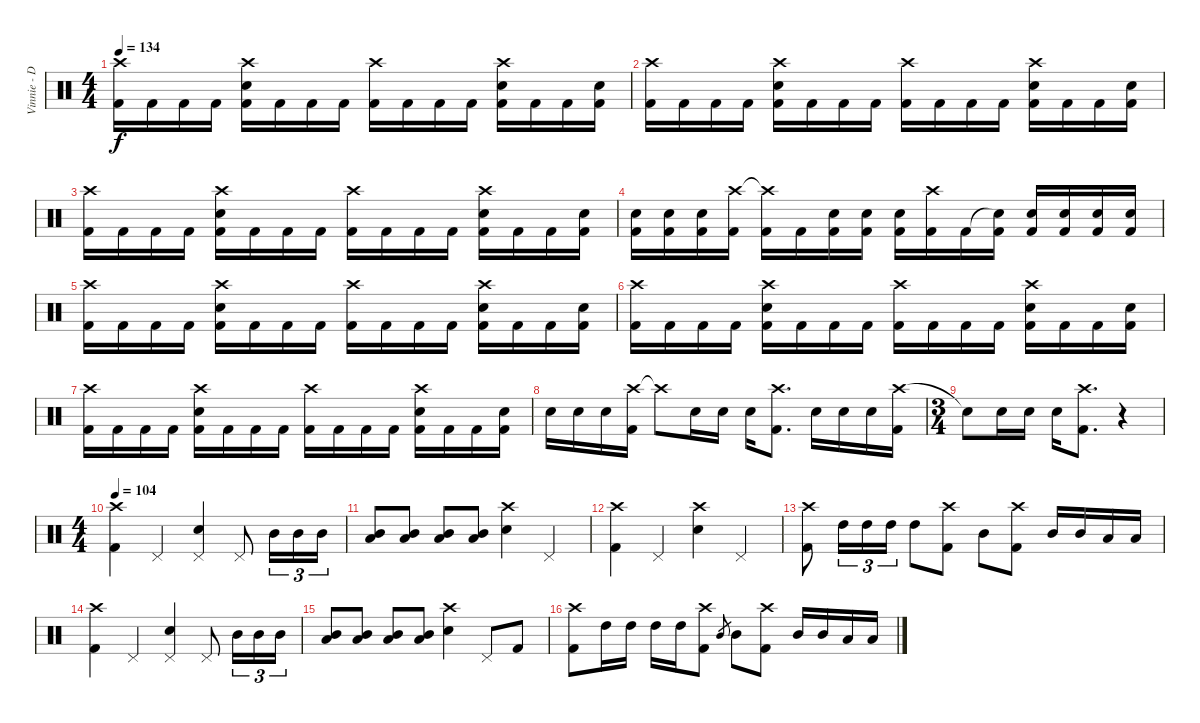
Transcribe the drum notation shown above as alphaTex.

\track ("Vinnie - Drums" "Vinnie - D") {instrument percussion}
\staff {score}
\articulation defaults
\ts (4 4)
\tempo 134
\clef neutral
\ks c
("Crash high (hit)" "Kick (hit) 2").16{dy f} "Kick (hit) 2".16 "Kick (hit) 2".16 "Kick (hit) 2".16 ("Crash high (hit)" "Electric Snare (hit)" "Kick (hit) 2").16 "Kick (hit) 2".16 "Kick (hit) 2".16 "Kick (hit) 2".16 ("Crash high (hit)" "Kick (hit) 2").16 "Kick (hit) 2".16 "Kick (hit) 2".16 "Kick (hit) 2".16 ("Crash high (hit)" "Electric Snare (hit)" "Kick (hit) 2").16 "Kick (hit) 2".16 "Kick (hit) 2".16 ("Electric Snare (hit)" "Kick (hit) 2").16 |
("Crash high (hit)" "Kick (hit) 2").16 "Kick (hit) 2".16 "Kick (hit) 2".16 "Kick (hit) 2".16 ("Crash high (hit)" "Electric Snare (hit)" "Kick (hit) 2").16 "Kick (hit) 2".16 "Kick (hit) 2".16 "Kick (hit) 2".16 ("Crash high (hit)" "Kick (hit) 2").16 "Kick (hit) 2".16 "Kick (hit) 2".16 "Kick (hit) 2".16 ("Crash high (hit)" "Electric Snare (hit)" "Kick (hit) 2").16 "Kick (hit) 2".16 "Kick (hit) 2".16 ("Electric Snare (hit)" "Kick (hit) 2").16 |
("Crash high (hit)" "Kick (hit) 2").16 "Kick (hit) 2".16 "Kick (hit) 2".16 "Kick (hit) 2".16 ("Crash high (hit)" "Electric Snare (hit)" "Kick (hit) 2").16 "Kick (hit) 2".16 "Kick (hit) 2".16 "Kick (hit) 2".16 ("Crash high (hit)" "Kick (hit) 2").16 "Kick (hit) 2".16 "Kick (hit) 2".16 "Kick (hit) 2".16 ("Crash high (hit)" "Electric Snare (hit)" "Kick (hit) 2").16 "Kick (hit) 2".16 "Kick (hit) 2".16 ("Electric Snare (hit)" "Kick (hit) 2").16 |
("Electric Snare (hit)" "Kick (hit) 2").16 ("Electric Snare (hit)" "Kick (hit) 2").16 ("Electric Snare (hit)" "Kick (hit) 2").16 ("Crash high (hit)" "Kick (hit) 2").16 ("Crash high (hit)"{t} "Kick (hit) 2").16 "Kick (hit) 2".16 ("Electric Snare (hit)" "Kick (hit) 2").16 ("Electric Snare (hit)" "Kick (hit) 2").16 ("Electric Snare (hit)" "Kick (hit) 2").16 ("Crash high (hit)" "Kick (hit) 2").16 "Kick (hit) 2".16 ("Snare (hit)"{t} "Kick (hit) 2").16 ("Electric Snare (hit)" "Kick (hit) 2").16 ("Electric Snare (hit)" "Kick (hit) 2").16 ("Electric Snare (hit)" "Kick (hit) 2").16 ("Electric Snare (hit)" "Kick (hit) 2").16 |
("Crash high (hit)" "Kick (hit) 2").16 "Kick (hit) 2".16 "Kick (hit) 2".16 "Kick (hit) 2".16 ("Crash high (hit)" "Electric Snare (hit)" "Kick (hit) 2").16 "Kick (hit) 2".16 "Kick (hit) 2".16 "Kick (hit) 2".16 ("Crash high (hit)" "Kick (hit) 2").16 "Kick (hit) 2".16 "Kick (hit) 2".16 "Kick (hit) 2".16 ("Crash high (hit)" "Electric Snare (hit)" "Kick (hit) 2").16 "Kick (hit) 2".16 "Kick (hit) 2".16 ("Electric Snare (hit)" "Kick (hit) 2").16 |
("Crash high (hit)" "Kick (hit) 2").16 "Kick (hit) 2".16 "Kick (hit) 2".16 "Kick (hit) 2".16 ("Crash high (hit)" "Electric Snare (hit)" "Kick (hit) 2").16 "Kick (hit) 2".16 "Kick (hit) 2".16 "Kick (hit) 2".16 ("Crash high (hit)" "Kick (hit) 2").16 "Kick (hit) 2".16 "Kick (hit) 2".16 "Kick (hit) 2".16 ("Crash high (hit)" "Electric Snare (hit)" "Kick (hit) 2").16 "Kick (hit) 2".16 "Kick (hit) 2".16 ("Electric Snare (hit)" "Kick (hit) 2").16 |
("Crash high (hit)" "Kick (hit) 2").16 "Kick (hit) 2".16 "Kick (hit) 2".16 "Kick (hit) 2".16 ("Crash high (hit)" "Electric Snare (hit)" "Kick (hit) 2").16 "Kick (hit) 2".16 "Kick (hit) 2".16 "Kick (hit) 2".16 ("Crash high (hit)" "Kick (hit) 2").16 "Kick (hit) 2".16 "Kick (hit) 2".16 "Kick (hit) 2".16 ("Crash high (hit)" "Electric Snare (hit)" "Kick (hit) 2").16 "Kick (hit) 2".16 "Kick (hit) 2".16 ("Electric Snare (hit)" "Kick (hit) 2").16 |
"Electric Snare (hit)".16 "Electric Snare (hit)".16 "Electric Snare (hit)".16 ("Crash high (hit)" "Kick (hit) 2").16 "Crash high (hit)"{t}.8 "Electric Snare (hit)".16 "Electric Snare (hit)".16 "Electric Snare (hit)".16 ("Crash high (hit)" "Kick (hit) 2").8{d} "Electric Snare (hit)".16 "Electric Snare (hit)".16 "Electric Snare (hit)".16 ("Crash high (hit)" "Kick (hit) 2").16 |
\ts (3 4)
"Snare (hit)"{t}.8 "Electric Snare (hit)".16 "Electric Snare (hit)".16 "Electric Snare (hit)".16 ("Crash high (hit)" "Kick (hit) 2").8{d} r.4 |
\ts (4 4)
\tempo 104
("Crash high (hit)" "Kick (hit) 2").4 "Pedal Hi-Hat (hit)".4 ("Pedal Hi-Hat (hit)" "Electric Snare (hit)").4 "Pedal Hi-Hat (hit)".8 "Mid Tom (hit)".16{tu (3 2)} "Mid Tom (hit)".16{tu (3 2)} "Mid Tom (hit)".16{tu (3 2)} |
("Mid Tom (hit)" "Low Tom (hit)").8 ("Mid Tom (hit)" "Low Tom (hit)").8 ("Mid Tom (hit)" "Low Tom (hit)").8 ("Mid Tom (hit)" "Low Tom (hit)").8 ("Crash high (hit)" "Electric Snare (hit)").4 "Pedal Hi-Hat (hit)".4 |
("Crash high (hit)" "Kick (hit) 2").4 "Pedal Hi-Hat (hit)".4 ("Crash high (hit)" "Electric Snare (hit)").4 "Pedal Hi-Hat (hit)".4 |
("Crash high (hit)" "Kick (hit) 2").8 "High Tom (hit)".16{tu (3 2)} "High Tom (hit)".16{tu (3 2)} "High Tom (hit)".16{tu (3 2)} "High Tom (hit)".8 ("Crash high (hit)" "Kick (hit) 2").8 "Mid Tom (hit)".8 ("Crash high (hit)" "Kick (hit) 2").8 "Mid Tom (hit)".16 "Mid Tom (hit)".16 "Low Tom (hit)".16 "Low Tom (hit)".16 |
("Crash high (hit)" "Kick (hit) 2").4 "Pedal Hi-Hat (hit)".4 ("Pedal Hi-Hat (hit)" "Electric Snare (hit)").4 "Pedal Hi-Hat (hit)".8 "Mid Tom (hit)".16{tu (3 2)} "Mid Tom (hit)".16{tu (3 2)} "Mid Tom (hit)".16{tu (3 2)} |
("Mid Tom (hit)" "Low Tom (hit)").8 ("Mid Tom (hit)" "Low Tom (hit)").8 ("Mid Tom (hit)" "Low Tom (hit)").8 ("Mid Tom (hit)" "Low Tom (hit)").8 ("Crash high (hit)" "Electric Snare (hit)").4 "Pedal Hi-Hat (hit)".8 "Kick (hit) 2".8 |
("Crash high (hit)" "Kick (hit) 2").8 "High Tom (hit)".16 "High Tom (hit)".16 "High Tom (hit)".16 "High Tom (hit)".16 ("Crash high (hit)" "Kick (hit) 2").8 "Mid Tom (hit)".8{gr} "Mid Tom (hit)".8 ("Crash high (hit)" "Kick (hit) 2").8 "Mid Tom (hit)".16 "Mid Tom (hit)".16 "Low Tom (hit)".16 "Low Tom (hit)".16
